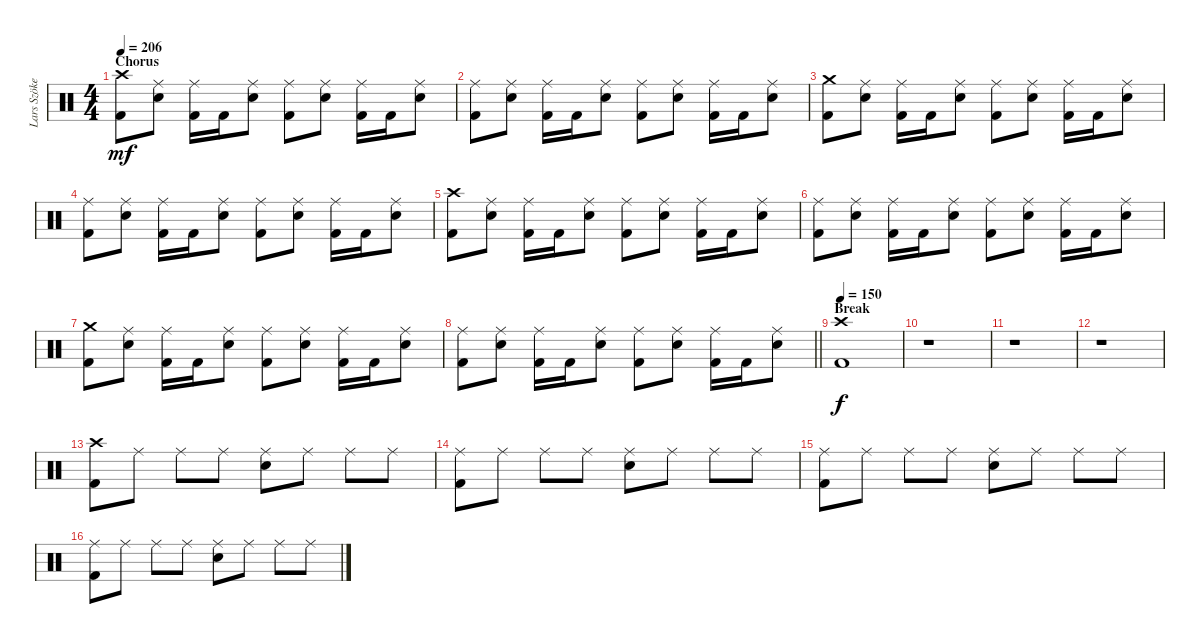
\track ("Lars Szöke" "Lars Szöke") {instrument percussion}
\staff {score}
\articulation defaults
\ts (4 4)
\section ("" "Chorus")
\tempo 206
\clef neutral
\ks c
("Crash high (hit)" "Kick (hit) 2").8{dy mf} ("Ride (middle)" "Snare (hit) 2").8 ("Ride (middle)" "Kick (hit) 2").16 "Kick (hit) 2".16 ("Ride (middle)" "Snare (hit) 2").8 ("Ride (middle)" "Kick (hit) 2").8 ("Ride (middle)" "Snare (hit) 2").8 ("Ride (middle)" "Kick (hit) 2").16 "Kick (hit) 2".16 ("Ride (middle)" "Snare (hit) 2").8 |
("Ride (middle)" "Kick (hit) 2").8 ("Ride (middle)" "Snare (hit) 2").8 ("Ride (middle)" "Kick (hit) 2").16 "Kick (hit) 2".16 ("Ride (middle)" "Snare (hit) 2").8 ("Ride (middle)" "Kick (hit) 2").8 ("Ride (middle)" "Snare (hit) 2").8 ("Ride (middle)" "Kick (hit) 2").16 "Kick (hit) 2".16 ("Ride (middle)" "Snare (hit) 2").8 |
("Crash medium (hit)" "Kick (hit) 2").8 ("Ride (middle)" "Snare (hit) 2").8 ("Ride (middle)" "Kick (hit) 2").16 "Kick (hit) 2".16 ("Ride (middle)" "Snare (hit) 2").8 ("Ride (middle)" "Kick (hit) 2").8 ("Ride (middle)" "Snare (hit) 2").8 ("Ride (middle)" "Kick (hit) 2").16 "Kick (hit) 2".16 ("Ride (middle)" "Snare (hit) 2").8 |
("Ride (middle)" "Kick (hit) 2").8 ("Ride (middle)" "Snare (hit) 2").8 ("Ride (middle)" "Kick (hit) 2").16 "Kick (hit) 2".16 ("Ride (middle)" "Snare (hit) 2").8 ("Ride (middle)" "Kick (hit) 2").8 ("Ride (middle)" "Snare (hit) 2").8 ("Ride (middle)" "Kick (hit) 2").16 "Kick (hit) 2".16 ("Ride (middle)" "Snare (hit) 2").8 |
("Crash high (hit)" "Kick (hit) 2").8 ("Ride (middle)" "Snare (hit) 2").8 ("Ride (middle)" "Kick (hit) 2").16 "Kick (hit) 2".16 ("Ride (middle)" "Snare (hit) 2").8 ("Ride (middle)" "Kick (hit) 2").8 ("Ride (middle)" "Snare (hit) 2").8 ("Ride (middle)" "Kick (hit) 2").16 "Kick (hit) 2".16 ("Ride (middle)" "Snare (hit) 2").8 |
("Ride (middle)" "Kick (hit) 2").8 ("Ride (middle)" "Snare (hit) 2").8 ("Ride (middle)" "Kick (hit) 2").16 "Kick (hit) 2".16 ("Ride (middle)" "Snare (hit) 2").8 ("Ride (middle)" "Kick (hit) 2").8 ("Ride (middle)" "Snare (hit) 2").8 ("Ride (middle)" "Kick (hit) 2").16 "Kick (hit) 2".16 ("Ride (middle)" "Snare (hit) 2").8 |
("Crash medium (hit)" "Kick (hit) 2").8 ("Ride (middle)" "Snare (hit) 2").8 ("Ride (middle)" "Kick (hit) 2").16 "Kick (hit) 2".16 ("Ride (middle)" "Snare (hit) 2").8 ("Ride (middle)" "Kick (hit) 2").8 ("Ride (middle)" "Snare (hit) 2").8 ("Ride (middle)" "Kick (hit) 2").16 "Kick (hit) 2".16 ("Ride (middle)" "Snare (hit) 2").8 |
\barLineRight lightlight
("Ride (middle)" "Kick (hit) 2").8 ("Ride (middle)" "Snare (hit) 2").8 ("Ride (middle)" "Kick (hit) 2").16 "Kick (hit) 2".16 ("Ride (middle)" "Snare (hit) 2").8 ("Ride (middle)" "Kick (hit) 2").8 ("Ride (middle)" "Snare (hit) 2").8 ("Ride (middle)" "Kick (hit) 2").16 "Kick (hit) 2".16 ("Ride (middle)" "Snare (hit) 2").8 |
\section ("" "Break")
\tempo 150
("Crash high (hit)" "Kick (hit) 2").1{dy f} |
r.1 |
r.1 |
r.1 |
("Crash high (hit)" "Kick (hit) 2").8 "Ride (middle)".8 "Ride (middle)".8 "Ride (middle)".8 ("Ride (middle)" "Snare (hit) 2").8 "Ride (middle)".8 "Ride (middle)".8 "Ride (middle)".8 |
("Ride (middle)" "Kick (hit) 2").8 "Ride (middle)".8 "Ride (middle)".8 "Ride (middle)".8 ("Ride (middle)" "Snare (hit) 2").8 "Ride (middle)".8 "Ride (middle)".8 "Ride (middle)".8 |
("Ride (middle)" "Kick (hit) 2").8 "Ride (middle)".8 "Ride (middle)".8 "Ride (middle)".8 ("Ride (middle)" "Snare (hit) 2").8 "Ride (middle)".8 "Ride (middle)".8 "Ride (middle)".8 |
("Ride (middle)" "Kick (hit) 2").8 "Ride (middle)".8 "Ride (middle)".8 "Ride (middle)".8 ("Ride (middle)" "Snare (hit) 2").8 "Ride (middle)".8 "Ride (middle)".8 "Ride (middle)".8
